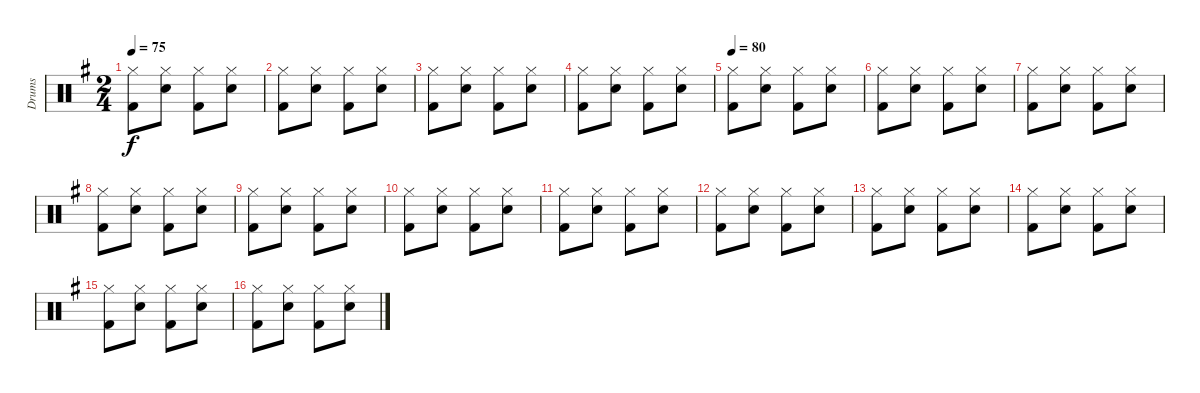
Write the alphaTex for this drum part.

\track ("Drums" "Drums") {instrument percussion}
\staff {score}
\articulation defaults
\ts (2 4)
\tempo 75
\clef neutral
\ks g
("Hi-Hat (closed)" "Kick (hit) 2").8{dy f} ("Hi-Hat (closed)" "Electric Snare (hit)").8 ("Hi-Hat (closed)" "Kick (hit) 2").8 ("Hi-Hat (closed)" "Electric Snare (hit)").8 |
("Hi-Hat (closed)" "Kick (hit) 2").8 ("Hi-Hat (closed)" "Electric Snare (hit)").8 ("Hi-Hat (closed)" "Kick (hit) 2").8 ("Hi-Hat (closed)" "Electric Snare (hit)").8 |
("Hi-Hat (closed)" "Kick (hit) 2").8 ("Hi-Hat (closed)" "Electric Snare (hit)").8 ("Hi-Hat (closed)" "Kick (hit) 2").8 ("Hi-Hat (closed)" "Electric Snare (hit)").8 |
("Hi-Hat (closed)" "Kick (hit) 2").8 ("Hi-Hat (closed)" "Electric Snare (hit)").8 ("Hi-Hat (closed)" "Kick (hit) 2").8 ("Hi-Hat (closed)" "Electric Snare (hit)").8 |
\tempo 80
("Hi-Hat (closed)" "Kick (hit) 2").8 ("Hi-Hat (closed)" "Electric Snare (hit)").8 ("Hi-Hat (closed)" "Kick (hit) 2").8 ("Hi-Hat (closed)" "Electric Snare (hit)").8 |
("Hi-Hat (closed)" "Kick (hit) 2").8 ("Hi-Hat (closed)" "Electric Snare (hit)").8 ("Hi-Hat (closed)" "Kick (hit) 2").8 ("Hi-Hat (closed)" "Electric Snare (hit)").8 |
("Hi-Hat (closed)" "Kick (hit) 2").8 ("Hi-Hat (closed)" "Electric Snare (hit)").8 ("Hi-Hat (closed)" "Kick (hit) 2").8 ("Hi-Hat (closed)" "Electric Snare (hit)").8 |
("Hi-Hat (closed)" "Kick (hit) 2").8 ("Hi-Hat (closed)" "Electric Snare (hit)").8 ("Hi-Hat (closed)" "Kick (hit) 2").8 ("Hi-Hat (closed)" "Electric Snare (hit)").8 |
("Hi-Hat (closed)" "Kick (hit) 2").8 ("Hi-Hat (closed)" "Electric Snare (hit)").8 ("Hi-Hat (closed)" "Kick (hit) 2").8 ("Hi-Hat (closed)" "Electric Snare (hit)").8 |
("Hi-Hat (closed)" "Kick (hit) 2").8 ("Hi-Hat (closed)" "Electric Snare (hit)").8 ("Hi-Hat (closed)" "Kick (hit) 2").8 ("Hi-Hat (closed)" "Electric Snare (hit)").8 |
("Hi-Hat (closed)" "Kick (hit) 2").8 ("Hi-Hat (closed)" "Electric Snare (hit)").8 ("Hi-Hat (closed)" "Kick (hit) 2").8 ("Hi-Hat (closed)" "Electric Snare (hit)").8 |
("Hi-Hat (closed)" "Kick (hit) 2").8 ("Hi-Hat (closed)" "Electric Snare (hit)").8 ("Hi-Hat (closed)" "Kick (hit) 2").8 ("Hi-Hat (closed)" "Electric Snare (hit)").8 |
("Hi-Hat (closed)" "Kick (hit) 2").8 ("Hi-Hat (closed)" "Electric Snare (hit)").8 ("Hi-Hat (closed)" "Kick (hit) 2").8 ("Hi-Hat (closed)" "Electric Snare (hit)").8 |
("Hi-Hat (closed)" "Kick (hit) 2").8 ("Hi-Hat (closed)" "Electric Snare (hit)").8 ("Hi-Hat (closed)" "Kick (hit) 2").8 ("Hi-Hat (closed)" "Electric Snare (hit)").8 |
("Hi-Hat (closed)" "Kick (hit) 2").8 ("Hi-Hat (closed)" "Electric Snare (hit)").8 ("Hi-Hat (closed)" "Kick (hit) 2").8 ("Hi-Hat (closed)" "Electric Snare (hit)").8 |
("Hi-Hat (closed)" "Kick (hit) 2").8 ("Hi-Hat (closed)" "Electric Snare (hit)").8 ("Hi-Hat (closed)" "Kick (hit) 2").8 ("Hi-Hat (closed)" "Electric Snare (hit)").8
